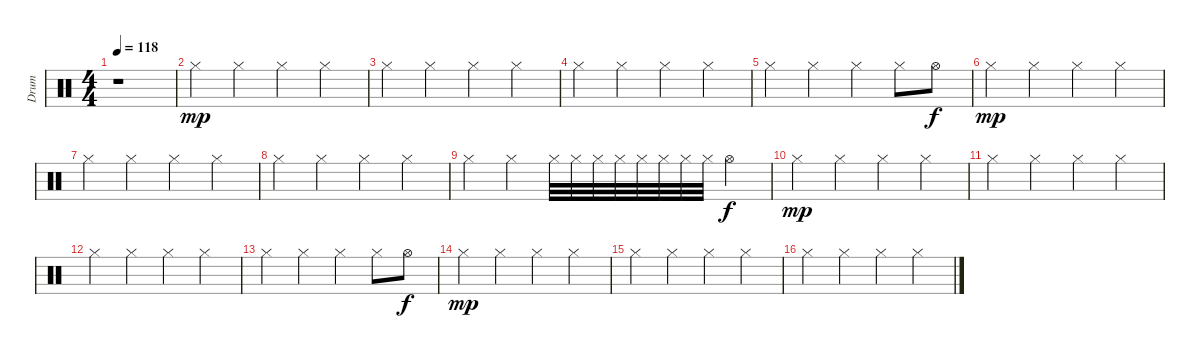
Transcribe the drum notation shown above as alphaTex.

\track ("Drum" "Drum") {instrument percussion}
\staff {score}
\articulation defaults
\ts (4 4)
\tempo 118
\clef neutral
\ks c
r.1{dy mp} |
"Hi-Hat (closed)".4 "Hi-Hat (closed)".4 "Hi-Hat (closed)".4 "Hi-Hat (closed)".4 |
"Hi-Hat (closed)".4 "Hi-Hat (closed)".4 "Hi-Hat (closed)".4 "Hi-Hat (closed)".4 |
"Hi-Hat (closed)".4 "Hi-Hat (closed)".4 "Hi-Hat (closed)".4 "Hi-Hat (closed)".4 |
"Hi-Hat (closed)".4 "Hi-Hat (closed)".4 "Hi-Hat (closed)".4 "Hi-Hat (closed)".8 "Hi-Hat (open)".8{dy f} |
"Hi-Hat (closed)".4{dy mp} "Hi-Hat (closed)".4 "Hi-Hat (closed)".4 "Hi-Hat (closed)".4 |
"Hi-Hat (closed)".4 "Hi-Hat (closed)".4 "Hi-Hat (closed)".4 "Hi-Hat (closed)".4 |
"Hi-Hat (closed)".4 "Hi-Hat (closed)".4 "Hi-Hat (closed)".4 "Hi-Hat (closed)".4 |
"Hi-Hat (closed)".4 "Hi-Hat (closed)".4 "Hi-Hat (closed)".32 "Hi-Hat (closed)".32 "Hi-Hat (closed)".32 "Hi-Hat (closed)".32 "Hi-Hat (closed)".32 "Hi-Hat (closed)".32 "Hi-Hat (closed)".32 "Hi-Hat (closed)".32 "Hi-Hat (open)".4{dy f} |
"Hi-Hat (closed)".4{dy mp} "Hi-Hat (closed)".4 "Hi-Hat (closed)".4 "Hi-Hat (closed)".4 |
"Hi-Hat (closed)".4 "Hi-Hat (closed)".4 "Hi-Hat (closed)".4 "Hi-Hat (closed)".4 |
"Hi-Hat (closed)".4 "Hi-Hat (closed)".4 "Hi-Hat (closed)".4 "Hi-Hat (closed)".4 |
"Hi-Hat (closed)".4 "Hi-Hat (closed)".4 "Hi-Hat (closed)".4 "Hi-Hat (closed)".8 "Hi-Hat (open)".8{dy f} |
"Hi-Hat (closed)".4{dy mp} "Hi-Hat (closed)".4 "Hi-Hat (closed)".4 "Hi-Hat (closed)".4 |
"Hi-Hat (closed)".4 "Hi-Hat (closed)".4 "Hi-Hat (closed)".4 "Hi-Hat (closed)".4 |
"Hi-Hat (closed)".4 "Hi-Hat (closed)".4 "Hi-Hat (closed)".4 "Hi-Hat (closed)".4
